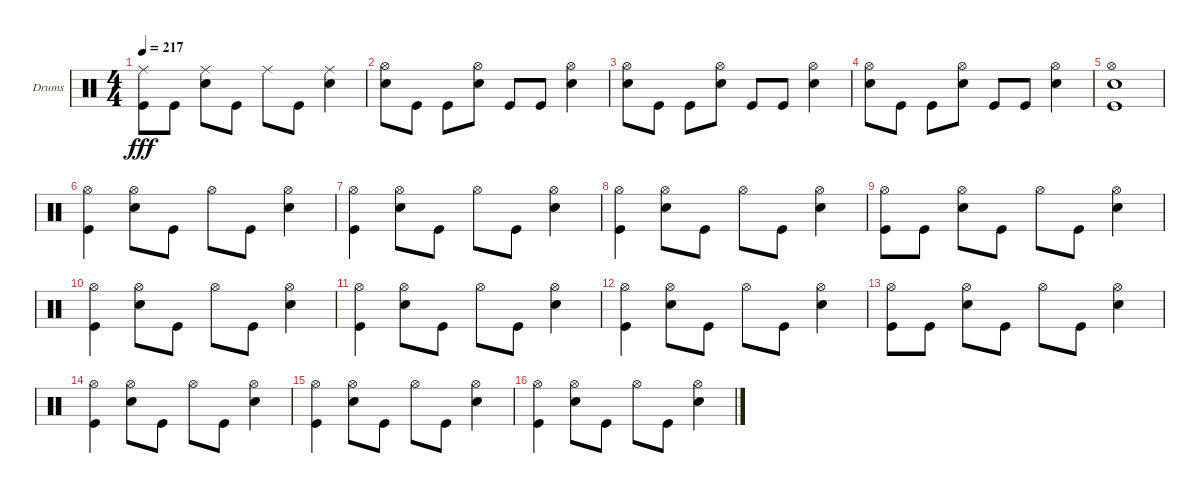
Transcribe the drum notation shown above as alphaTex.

\bracketExtendMode groupsimilarinstruments
\firstSystemTrackNameOrientation horizontal
\otherSystemsTrackNameOrientation horizontal
\track ("Drumkit" "Drums") {instrument percussion}
\staff {score}
\articulation defaults
\ts (4 4)
\tempo 217
\clef neutral
\ks c
("Kick (hit)" "Ride (middle)").8{dy fff} "Kick (hit)".8 ("Snare (hit) 2" "Ride (middle)").8 "Kick (hit)".8 "Ride (middle)".8 "Kick (hit)".8 ("Snare (hit) 2" "Ride (middle)").4 |
("Snare (hit) 2" "Hi-Hat (open)").8 "Kick (hit)".8 "Kick (hit)".8 ("Snare (hit) 2" "Hi-Hat (open)").8 "Kick (hit)".8 "Kick (hit)".8 ("Snare (hit) 2" "Hi-Hat (open)").4 |
("Snare (hit) 2" "Hi-Hat (open)").8 "Kick (hit)".8 "Kick (hit)".8 ("Snare (hit) 2" "Hi-Hat (open)").8 "Kick (hit)".8 "Kick (hit)".8 ("Snare (hit) 2" "Hi-Hat (open)").4 |
("Snare (hit) 2" "Hi-Hat (open)").8 "Kick (hit)".8 "Kick (hit)".8 ("Snare (hit) 2" "Hi-Hat (open)").8 "Kick (hit)".8 "Kick (hit)".8 ("Snare (hit) 2" "Hi-Hat (open)").4 |
("Snare (hit) 2" "Hi-Hat (open)" "Kick (hit)").1 |
("Kick (hit)" "Hi-Hat (open)").4 ("Hi-Hat (open)" "Snare (hit) 2").8 "Kick (hit)".8 "Hi-Hat (open)".8 "Kick (hit)".8 ("Snare (hit) 2" "Hi-Hat (open)").4 |
("Kick (hit)" "Hi-Hat (open)").4 ("Hi-Hat (open)" "Snare (hit) 2").8 "Kick (hit)".8 "Hi-Hat (open)".8 "Kick (hit)".8 ("Snare (hit) 2" "Hi-Hat (open)").4 |
("Kick (hit)" "Hi-Hat (open)").4 ("Hi-Hat (open)" "Snare (hit) 2").8 "Kick (hit)".8 "Hi-Hat (open)".8 "Kick (hit)".8 ("Snare (hit) 2" "Hi-Hat (open)").4 |
("Kick (hit)" "Hi-Hat (open)").8 "Kick (hit)".8 ("Snare (hit) 2" "Hi-Hat (open)").8 "Kick (hit)".8 "Hi-Hat (open)".8 "Kick (hit)".8 ("Snare (hit) 2" "Hi-Hat (open)").4 |
("Kick (hit)" "Hi-Hat (open)").4 ("Hi-Hat (open)" "Snare (hit) 2").8 "Kick (hit)".8 "Hi-Hat (open)".8 "Kick (hit)".8 ("Snare (hit) 2" "Hi-Hat (open)").4 |
("Kick (hit)" "Hi-Hat (open)").4 ("Hi-Hat (open)" "Snare (hit) 2").8 "Kick (hit)".8 "Hi-Hat (open)".8 "Kick (hit)".8 ("Snare (hit) 2" "Hi-Hat (open)").4 |
("Kick (hit)" "Hi-Hat (open)").4 ("Hi-Hat (open)" "Snare (hit) 2").8 "Kick (hit)".8 "Hi-Hat (open)".8 "Kick (hit)".8 ("Snare (hit) 2" "Hi-Hat (open)").4 |
("Kick (hit)" "Hi-Hat (open)").8 "Kick (hit)".8 ("Snare (hit) 2" "Hi-Hat (open)").8 "Kick (hit)".8 "Hi-Hat (open)".8 "Kick (hit)".8 ("Snare (hit) 2" "Hi-Hat (open)").4 |
("Kick (hit)" "Hi-Hat (open)").4 ("Hi-Hat (open)" "Snare (hit) 2").8 "Kick (hit)".8 "Hi-Hat (open)".8 "Kick (hit)".8 ("Snare (hit) 2" "Hi-Hat (open)").4 |
("Kick (hit)" "Hi-Hat (open)").4 ("Hi-Hat (open)" "Snare (hit) 2").8 "Kick (hit)".8 "Hi-Hat (open)".8 "Kick (hit)".8 ("Snare (hit) 2" "Hi-Hat (open)").4 |
("Kick (hit)" "Hi-Hat (open)").4 ("Hi-Hat (open)" "Snare (hit) 2").8 "Kick (hit)".8 "Hi-Hat (open)".8 "Kick (hit)".8 ("Snare (hit) 2" "Hi-Hat (open)").4
